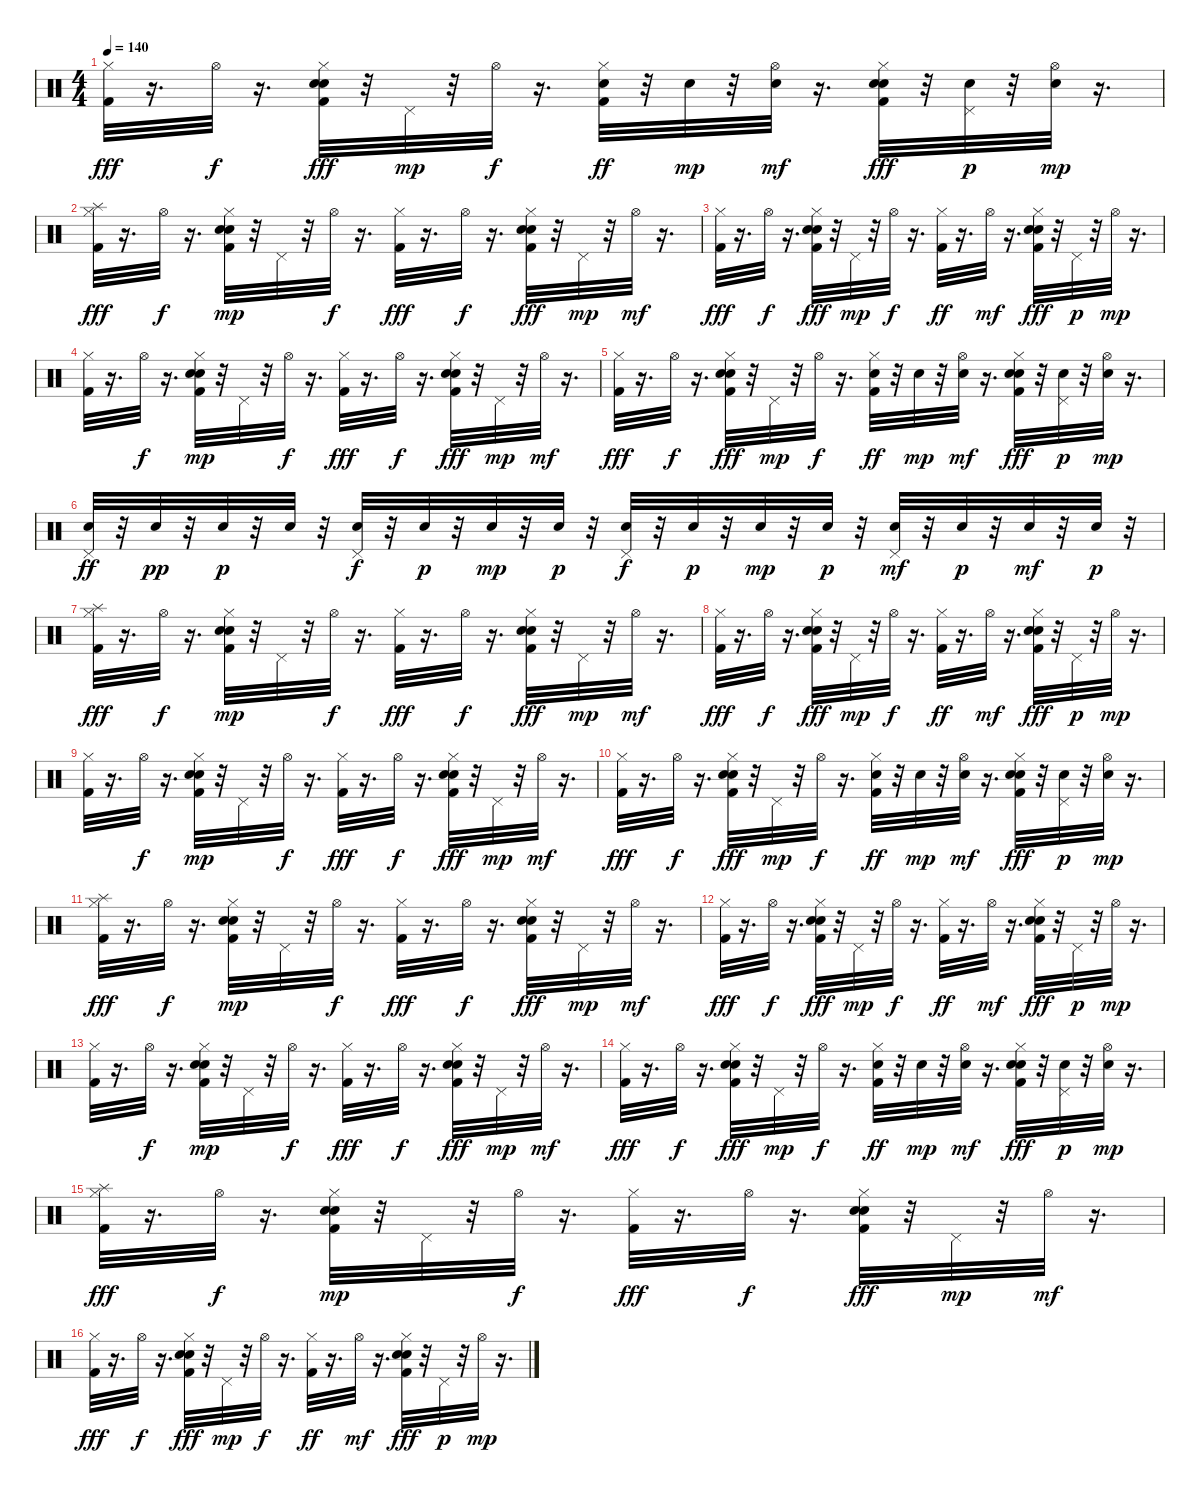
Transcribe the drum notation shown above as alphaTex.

\track "" {instrument percussion}
\staff {score}
\articulation defaults
\ts (4 4)
\tempo 140
\clef neutral
\ks c
("Kick (hit) 2" "Hi-Hat (closed)").32{dy fff} r.16{d} "Hi-Hat (open)".32{dy f} r.16{d} ("Kick (hit) 2" "Snare (hit) 2" "Hand Clap (hit)" "Hi-Hat (closed)").32{dy fff} r.32 "Pedal Hi-Hat (hit)".32{dy mp} r.32 "Hi-Hat (open)".32{dy f} r.16{d} ("Kick (hit) 2" "Snare (hit) 2" "Hi-Hat (closed)").32{dy ff} r.32 "Snare (hit) 2".32{dy mp} r.32 ("Snare (hit) 2" "Hi-Hat (open)").32{dy mf} r.16{d} ("Kick (hit) 2" "Snare (hit) 2" "Hand Clap (hit)" "Hi-Hat (closed)").32{dy fff} r.32 ("Snare (hit) 2" "Pedal Hi-Hat (hit)").32{dy p} r.32 ("Snare (hit) 2" "Hi-Hat (open)").32{dy mp} r.16{d} |
("Kick (hit) 2" "Hi-Hat (closed)" "Splash (hit)").32{dy fff} r.16{d} "Hi-Hat (open)".32{dy f} r.16{d} ("Kick (hit) 2" "Snare (hit) 2" "Hand Clap (hit)" "Hi-Hat (closed)").32{dy mp} r.32 "Pedal Hi-Hat (hit)".32 r.32 "Hi-Hat (open)".32{dy f} r.16{d} ("Kick (hit) 2" "Hi-Hat (closed)").32{dy fff} r.16{d} "Hi-Hat (open)".32{dy f} r.16{d} ("Kick (hit) 2" "Snare (hit) 2" "Hand Clap (hit)" "Hi-Hat (closed)").32{dy fff} r.32 "Pedal Hi-Hat (hit)".32{dy mp} r.32 "Hi-Hat (open)".32{dy mf} r.16{d} |
("Kick (hit) 2" "Hi-Hat (closed)").32{dy fff} r.16{d} "Hi-Hat (open)".32{dy f} r.16{d} ("Kick (hit) 2" "Snare (hit) 2" "Hand Clap (hit)" "Hi-Hat (closed)").32{dy fff} r.32 "Pedal Hi-Hat (hit)".32{dy mp} r.32 "Hi-Hat (open)".32{dy f} r.16{d} ("Kick (hit) 2" "Hi-Hat (closed)").32{dy ff} r.16{d} "Hi-Hat (open)".32{dy mf} r.16{d} ("Kick (hit) 2" "Snare (hit) 2" "Hand Clap (hit)" "Hi-Hat (closed)").32{dy fff} r.32 "Pedal Hi-Hat (hit)".32{dy p} r.32 "Hi-Hat (open)".32{dy mp} r.16{d} |
("Kick (hit) 2" "Hi-Hat (closed)").32 r.16{d} "Hi-Hat (open)".32{dy f} r.16{d} ("Kick (hit) 2" "Snare (hit) 2" "Hand Clap (hit)" "Hi-Hat (closed)").32{dy mp} r.32 "Pedal Hi-Hat (hit)".32 r.32 "Hi-Hat (open)".32{dy f} r.16{d} ("Kick (hit) 2" "Hi-Hat (closed)").32{dy fff} r.16{d} "Hi-Hat (open)".32{dy f} r.16{d} ("Kick (hit) 2" "Snare (hit) 2" "Hand Clap (hit)" "Hi-Hat (closed)").32{dy fff} r.32 "Pedal Hi-Hat (hit)".32{dy mp} r.32 "Hi-Hat (open)".32{dy mf} r.16{d} |
("Kick (hit) 2" "Hi-Hat (closed)").32{dy fff} r.16{d} "Hi-Hat (open)".32{dy f} r.16{d} ("Kick (hit) 2" "Snare (hit) 2" "Hand Clap (hit)" "Hi-Hat (closed)").32{dy fff} r.32 "Pedal Hi-Hat (hit)".32{dy mp} r.32 "Hi-Hat (open)".32{dy f} r.16{d} ("Kick (hit) 2" "Snare (hit) 2" "Hi-Hat (closed)").32{dy ff} r.32 "Snare (hit) 2".32{dy mp} r.32 ("Snare (hit) 2" "Hi-Hat (open)").32{dy mf} r.16{d} ("Kick (hit) 2" "Snare (hit) 2" "Hand Clap (hit)" "Hi-Hat (closed)").32{dy fff} r.32 ("Snare (hit) 2" "Pedal Hi-Hat (hit)").32{dy p} r.32 ("Snare (hit) 2" "Hi-Hat (open)").32{dy mp} r.16{d} |
("Snare (hit) 2" "Pedal Hi-Hat (hit)").32{dy ff} r.32 "Snare (hit) 2".32{dy pp} r.32 "Snare (hit) 2".32{dy p} r.32 "Snare (hit) 2".32 r.32 ("Snare (hit) 2" "Pedal Hi-Hat (hit)").32{dy f} r.32 "Snare (hit) 2".32{dy p} r.32 "Snare (hit) 2".32{dy mp} r.32 "Snare (hit) 2".32{dy p} r.32 ("Snare (hit) 2" "Pedal Hi-Hat (hit)").32{dy f} r.32 "Snare (hit) 2".32{dy p} r.32 "Snare (hit) 2".32{dy mp} r.32 "Snare (hit) 2".32{dy p} r.32 ("Snare (hit) 2" "Pedal Hi-Hat (hit)").32{dy mf} r.32 "Snare (hit) 2".32{dy p} r.32 "Snare (hit) 2".32{dy mf} r.32 "Snare (hit) 2".32{dy p} r.32 |
("Kick (hit) 2" "Hi-Hat (closed)" "Splash (hit)").32{dy fff} r.16{d} "Hi-Hat (open)".32{dy f} r.16{d} ("Kick (hit) 2" "Snare (hit) 2" "Hand Clap (hit)" "Hi-Hat (closed)").32{dy mp} r.32 "Pedal Hi-Hat (hit)".32 r.32 "Hi-Hat (open)".32{dy f} r.16{d} ("Kick (hit) 2" "Hi-Hat (closed)").32{dy fff} r.16{d} "Hi-Hat (open)".32{dy f} r.16{d} ("Kick (hit) 2" "Snare (hit) 2" "Hand Clap (hit)" "Hi-Hat (closed)").32{dy fff} r.32 "Pedal Hi-Hat (hit)".32{dy mp} r.32 "Hi-Hat (open)".32{dy mf} r.16{d} |
("Kick (hit) 2" "Hi-Hat (closed)").32{dy fff} r.16{d} "Hi-Hat (open)".32{dy f} r.16{d} ("Kick (hit) 2" "Snare (hit) 2" "Hand Clap (hit)" "Hi-Hat (closed)").32{dy fff} r.32 "Pedal Hi-Hat (hit)".32{dy mp} r.32 "Hi-Hat (open)".32{dy f} r.16{d} ("Kick (hit) 2" "Hi-Hat (closed)").32{dy ff} r.16{d} "Hi-Hat (open)".32{dy mf} r.16{d} ("Kick (hit) 2" "Snare (hit) 2" "Hand Clap (hit)" "Hi-Hat (closed)").32{dy fff} r.32 "Pedal Hi-Hat (hit)".32{dy p} r.32 "Hi-Hat (open)".32{dy mp} r.16{d} |
("Kick (hit) 2" "Hi-Hat (closed)").32 r.16{d} "Hi-Hat (open)".32{dy f} r.16{d} ("Kick (hit) 2" "Snare (hit) 2" "Hand Clap (hit)" "Hi-Hat (closed)").32{dy mp} r.32 "Pedal Hi-Hat (hit)".32 r.32 "Hi-Hat (open)".32{dy f} r.16{d} ("Kick (hit) 2" "Hi-Hat (closed)").32{dy fff} r.16{d} "Hi-Hat (open)".32{dy f} r.16{d} ("Kick (hit) 2" "Snare (hit) 2" "Hand Clap (hit)" "Hi-Hat (closed)").32{dy fff} r.32 "Pedal Hi-Hat (hit)".32{dy mp} r.32 "Hi-Hat (open)".32{dy mf} r.16{d} |
("Kick (hit) 2" "Hi-Hat (closed)").32{dy fff} r.16{d} "Hi-Hat (open)".32{dy f} r.16{d} ("Kick (hit) 2" "Snare (hit) 2" "Hand Clap (hit)" "Hi-Hat (closed)").32{dy fff} r.32 "Pedal Hi-Hat (hit)".32{dy mp} r.32 "Hi-Hat (open)".32{dy f} r.16{d} ("Kick (hit) 2" "Snare (hit) 2" "Hi-Hat (closed)").32{dy ff} r.32 "Snare (hit) 2".32{dy mp} r.32 ("Snare (hit) 2" "Hi-Hat (open)").32{dy mf} r.16{d} ("Kick (hit) 2" "Snare (hit) 2" "Hand Clap (hit)" "Hi-Hat (closed)").32{dy fff} r.32 ("Snare (hit) 2" "Pedal Hi-Hat (hit)").32{dy p} r.32 ("Snare (hit) 2" "Hi-Hat (open)").32{dy mp} r.16{d} |
("Kick (hit) 2" "Hi-Hat (closed)" "Splash (hit)").32{dy fff} r.16{d} "Hi-Hat (open)".32{dy f} r.16{d} ("Kick (hit) 2" "Snare (hit) 2" "Hand Clap (hit)" "Hi-Hat (closed)").32{dy mp} r.32 "Pedal Hi-Hat (hit)".32 r.32 "Hi-Hat (open)".32{dy f} r.16{d} ("Kick (hit) 2" "Hi-Hat (closed)").32{dy fff} r.16{d} "Hi-Hat (open)".32{dy f} r.16{d} ("Kick (hit) 2" "Snare (hit) 2" "Hand Clap (hit)" "Hi-Hat (closed)").32{dy fff} r.32 "Pedal Hi-Hat (hit)".32{dy mp} r.32 "Hi-Hat (open)".32{dy mf} r.16{d} |
("Kick (hit) 2" "Hi-Hat (closed)").32{dy fff} r.16{d} "Hi-Hat (open)".32{dy f} r.16{d} ("Kick (hit) 2" "Snare (hit) 2" "Hand Clap (hit)" "Hi-Hat (closed)").32{dy fff} r.32 "Pedal Hi-Hat (hit)".32{dy mp} r.32 "Hi-Hat (open)".32{dy f} r.16{d} ("Kick (hit) 2" "Hi-Hat (closed)").32{dy ff} r.16{d} "Hi-Hat (open)".32{dy mf} r.16{d} ("Kick (hit) 2" "Snare (hit) 2" "Hand Clap (hit)" "Hi-Hat (closed)").32{dy fff} r.32 "Pedal Hi-Hat (hit)".32{dy p} r.32 "Hi-Hat (open)".32{dy mp} r.16{d} |
("Kick (hit) 2" "Hi-Hat (closed)").32 r.16{d} "Hi-Hat (open)".32{dy f} r.16{d} ("Kick (hit) 2" "Snare (hit) 2" "Hand Clap (hit)" "Hi-Hat (closed)").32{dy mp} r.32 "Pedal Hi-Hat (hit)".32 r.32 "Hi-Hat (open)".32{dy f} r.16{d} ("Kick (hit) 2" "Hi-Hat (closed)").32{dy fff} r.16{d} "Hi-Hat (open)".32{dy f} r.16{d} ("Kick (hit) 2" "Snare (hit) 2" "Hand Clap (hit)" "Hi-Hat (closed)").32{dy fff} r.32 "Pedal Hi-Hat (hit)".32{dy mp} r.32 "Hi-Hat (open)".32{dy mf} r.16{d} |
("Kick (hit) 2" "Hi-Hat (closed)").32{dy fff} r.16{d} "Hi-Hat (open)".32{dy f} r.16{d} ("Kick (hit) 2" "Snare (hit) 2" "Hand Clap (hit)" "Hi-Hat (closed)").32{dy fff} r.32 "Pedal Hi-Hat (hit)".32{dy mp} r.32 "Hi-Hat (open)".32{dy f} r.16{d} ("Kick (hit) 2" "Snare (hit) 2" "Hi-Hat (closed)").32{dy ff} r.32 "Snare (hit) 2".32{dy mp} r.32 ("Snare (hit) 2" "Hi-Hat (open)").32{dy mf} r.16{d} ("Kick (hit) 2" "Snare (hit) 2" "Hand Clap (hit)" "Hi-Hat (closed)").32{dy fff} r.32 ("Snare (hit) 2" "Pedal Hi-Hat (hit)").32{dy p} r.32 ("Snare (hit) 2" "Hi-Hat (open)").32{dy mp} r.16{d} |
("Kick (hit) 2" "Hi-Hat (closed)" "Splash (hit)").32{dy fff} r.16{d} "Hi-Hat (open)".32{dy f} r.16{d} ("Kick (hit) 2" "Snare (hit) 2" "Hand Clap (hit)" "Hi-Hat (closed)").32{dy mp} r.32 "Pedal Hi-Hat (hit)".32 r.32 "Hi-Hat (open)".32{dy f} r.16{d} ("Kick (hit) 2" "Hi-Hat (closed)").32{dy fff} r.16{d} "Hi-Hat (open)".32{dy f} r.16{d} ("Kick (hit) 2" "Snare (hit) 2" "Hand Clap (hit)" "Hi-Hat (closed)").32{dy fff} r.32 "Pedal Hi-Hat (hit)".32{dy mp} r.32 "Hi-Hat (open)".32{dy mf} r.16{d} |
("Kick (hit) 2" "Hi-Hat (closed)").32{dy fff} r.16{d} "Hi-Hat (open)".32{dy f} r.16{d} ("Kick (hit) 2" "Snare (hit) 2" "Hand Clap (hit)" "Hi-Hat (closed)").32{dy fff} r.32 "Pedal Hi-Hat (hit)".32{dy mp} r.32 "Hi-Hat (open)".32{dy f} r.16{d} ("Kick (hit) 2" "Hi-Hat (closed)").32{dy ff} r.16{d} "Hi-Hat (open)".32{dy mf} r.16{d} ("Kick (hit) 2" "Snare (hit) 2" "Hand Clap (hit)" "Hi-Hat (closed)").32{dy fff} r.32 "Pedal Hi-Hat (hit)".32{dy p} r.32 "Hi-Hat (open)".32{dy mp} r.16{d}
